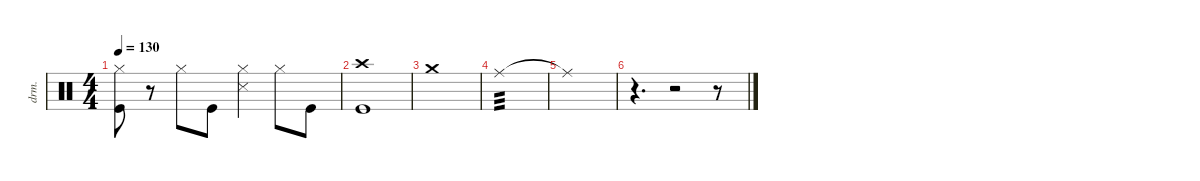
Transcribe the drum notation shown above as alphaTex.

\defaultSystemsLayout 4
\hideDynamics
\bracketExtendMode nobrackets
\track ("Manouche" "drm.") {instrument percussion}
\staff {score}
\articulation defaults
\ts (4 4)
\tempo 130
\clef neutral
\ks c
("Hi-Hat (closed)" "Kick (hit)").8{dy f beam Down} r.8{beam Down} "Hi-Hat (closed)".8{beam Down} "Kick (hit)".8{beam Down} ("Hi-Hat (closed)" "Snare (side stick) 3").4{beam Down} "Hi-Hat (closed)".8{beam Down} "Kick (hit)".8{beam Down} |
("Crash high (hit)" "Kick (hit)").1{beam Down} |
"Crash medium (hit)".1{dy mf beam Down} |
"Ride (middle)".1{tp 3 dy mp beam Down} |
"Ride (middle)"{t}.1{dy f beam Down} |
r.4{d beam Down} r.2{beam Down} r.8{beam Down}
